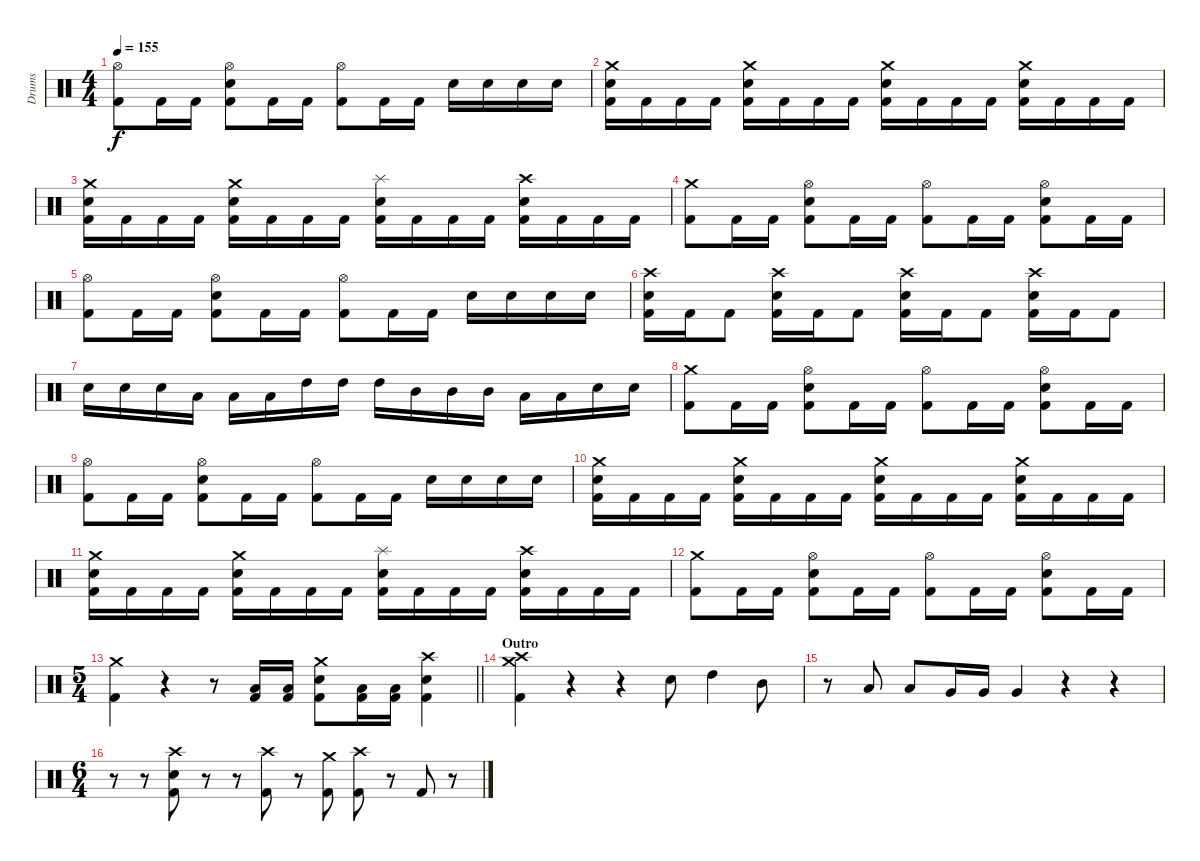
\track ("Drums" "Drums") {instrument percussion}
\staff {score}
\articulation defaults
\ts (4 4)
\tempo 155
\clef neutral
\ks c
("Hi-Hat (open)" "Kick (hit) 2").8{dy f} "Kick (hit) 2".16 "Kick (hit) 2".16 ("Hi-Hat (open)" "Electric Snare (hit)" "Kick (hit) 2").8 "Kick (hit) 2".16 "Kick (hit) 2".16 ("Hi-Hat (open)" "Kick (hit) 2").8 "Kick (hit) 2".16 "Kick (hit) 2".16 "Electric Snare (hit)".16 "Electric Snare (hit)".16 "Electric Snare (hit)".16 "Electric Snare (hit)".16 |
("Crash medium (hit)" "Electric Snare (hit)" "Kick (hit) 2").16 "Kick (hit) 2".16 "Kick (hit) 2".16 "Kick (hit) 2".16 ("Crash medium (hit)" "Electric Snare (hit)" "Kick (hit) 2").16 "Kick (hit) 2".16 "Kick (hit) 2".16 "Kick (hit) 2".16 ("Crash medium (hit)" "Electric Snare (hit)" "Kick (hit) 2").16 "Kick (hit) 2".16 "Kick (hit) 2".16 "Kick (hit) 2".16 ("Crash medium (hit)" "Electric Snare (hit)" "Kick (hit) 2").16 "Kick (hit) 2".16 "Kick (hit) 2".16 "Kick (hit) 2".16 |
("Crash medium (hit)" "Electric Snare (hit)" "Kick (hit) 2").16 "Kick (hit) 2".16 "Kick (hit) 2".16 "Kick (hit) 2".16 ("Crash medium (hit)" "Electric Snare (hit)" "Kick (hit) 2").16 "Kick (hit) 2".16 "Kick (hit) 2".16 "Kick (hit) 2".16 ("Splash (hit)" "Electric Snare (hit)" "Kick (hit) 2").16 "Kick (hit) 2".16 "Kick (hit) 2".16 "Kick (hit) 2".16 ("Crash high (hit)" "Electric Snare (hit)" "Kick (hit) 2").16 "Kick (hit) 2".16 "Kick (hit) 2".16 "Kick (hit) 2".16 |
("Crash medium (hit)" "Kick (hit) 2").8 "Kick (hit) 2".16 "Kick (hit) 2".16 ("Hi-Hat (open)" "Electric Snare (hit)" "Kick (hit) 2").8 "Kick (hit) 2".16 "Kick (hit) 2".16 ("Hi-Hat (open)" "Kick (hit) 2").8 "Kick (hit) 2".16 "Kick (hit) 2".16 ("Hi-Hat (open)" "Electric Snare (hit)" "Kick (hit) 2").8 "Kick (hit) 2".16 "Kick (hit) 2".16 |
("Hi-Hat (open)" "Kick (hit) 2").8 "Kick (hit) 2".16 "Kick (hit) 2".16 ("Hi-Hat (open)" "Electric Snare (hit)" "Kick (hit) 2").8 "Kick (hit) 2".16 "Kick (hit) 2".16 ("Hi-Hat (open)" "Kick (hit) 2").8 "Kick (hit) 2".16 "Kick (hit) 2".16 "Electric Snare (hit)".16 "Electric Snare (hit)".16 "Electric Snare (hit)".16 "Electric Snare (hit)".16 |
("Crash high (hit)" "Electric Snare (hit)" "Kick (hit) 2").16 "Kick (hit) 2".16 "Kick (hit) 2".8 ("Crash high (hit)" "Electric Snare (hit)" "Kick (hit) 2").16 "Kick (hit) 2".16 "Kick (hit) 2".8 ("Crash high (hit)" "Electric Snare (hit)" "Kick (hit) 2").16 "Kick (hit) 2".16 "Kick (hit) 2".8 ("Crash high (hit)" "Electric Snare (hit)" "Kick (hit) 2").16 "Kick (hit) 2".16 "Kick (hit) 2".8 |
"Electric Snare (hit)".16 "Electric Snare (hit)".16 "Electric Snare (hit)".16 "Low Tom (hit)".16 "Low Tom (hit)".16 "Low Tom (hit)".16 "High Tom (hit)".16 "High Tom (hit)".16 "High Tom (hit)".16 "Mid Tom (hit)".16 "Mid Tom (hit)".16 "Mid Tom (hit)".16 "Low Tom (hit)".16 "Low Tom (hit)".16 "Electric Snare (hit)".16 "Electric Snare (hit)".16 |
("Crash medium (hit)" "Kick (hit) 2").8 "Kick (hit) 2".16 "Kick (hit) 2".16 ("Hi-Hat (open)" "Electric Snare (hit)" "Kick (hit) 2").8 "Kick (hit) 2".16 "Kick (hit) 2".16 ("Hi-Hat (open)" "Kick (hit) 2").8 "Kick (hit) 2".16 "Kick (hit) 2".16 ("Hi-Hat (open)" "Electric Snare (hit)" "Kick (hit) 2").8 "Kick (hit) 2".16 "Kick (hit) 2".16 |
("Hi-Hat (open)" "Kick (hit) 2").8 "Kick (hit) 2".16 "Kick (hit) 2".16 ("Hi-Hat (open)" "Electric Snare (hit)" "Kick (hit) 2").8 "Kick (hit) 2".16 "Kick (hit) 2".16 ("Hi-Hat (open)" "Kick (hit) 2").8 "Kick (hit) 2".16 "Kick (hit) 2".16 "Electric Snare (hit)".16 "Electric Snare (hit)".16 "Electric Snare (hit)".16 "Electric Snare (hit)".16 |
("Crash medium (hit)" "Electric Snare (hit)" "Kick (hit) 2").16 "Kick (hit) 2".16 "Kick (hit) 2".16 "Kick (hit) 2".16 ("Crash medium (hit)" "Electric Snare (hit)" "Kick (hit) 2").16 "Kick (hit) 2".16 "Kick (hit) 2".16 "Kick (hit) 2".16 ("Crash medium (hit)" "Electric Snare (hit)" "Kick (hit) 2").16 "Kick (hit) 2".16 "Kick (hit) 2".16 "Kick (hit) 2".16 ("Crash medium (hit)" "Electric Snare (hit)" "Kick (hit) 2").16 "Kick (hit) 2".16 "Kick (hit) 2".16 "Kick (hit) 2".16 |
("Crash medium (hit)" "Electric Snare (hit)" "Kick (hit) 2").16 "Kick (hit) 2".16 "Kick (hit) 2".16 "Kick (hit) 2".16 ("Crash medium (hit)" "Electric Snare (hit)" "Kick (hit) 2").16 "Kick (hit) 2".16 "Kick (hit) 2".16 "Kick (hit) 2".16 ("Splash (hit)" "Electric Snare (hit)" "Kick (hit) 2").16 "Kick (hit) 2".16 "Kick (hit) 2".16 "Kick (hit) 2".16 ("Crash high (hit)" "Electric Snare (hit)" "Kick (hit) 2").16 "Kick (hit) 2".16 "Kick (hit) 2".16 "Kick (hit) 2".16 |
("Crash medium (hit)" "Kick (hit) 2").8 "Kick (hit) 2".16 "Kick (hit) 2".16 ("Hi-Hat (open)" "Electric Snare (hit)" "Kick (hit) 2").8 "Kick (hit) 2".16 "Kick (hit) 2".16 ("Hi-Hat (open)" "Kick (hit) 2").8 "Kick (hit) 2".16 "Kick (hit) 2".16 ("Hi-Hat (open)" "Electric Snare (hit)" "Kick (hit) 2").8 "Kick (hit) 2".16 "Kick (hit) 2".16 |
\ts (5 4)
\barLineRight lightlight
("Crash medium (hit)" "Kick (hit) 2").4 r.4 r.8 ("Low Tom (hit)" "Kick (hit) 2").16 ("Low Tom (hit)" "Kick (hit) 2").16 ("Crash medium (hit)" "Electric Snare (hit)" "Kick (hit) 2").8 ("Low Tom (hit)" "Kick (hit) 2").16 ("Low Tom (hit)" "Kick (hit) 2").16 ("Crash high (hit)" "Electric Snare (hit)" "Kick (hit) 2").4 |
\section ("" "Outro")
("Crash high (hit)" "Crash medium (hit)" "Kick (hit) 2").4 r.4 r.4 "Electric Snare (hit)".8 "High Tom (hit)".4 "Mid Tom (hit)".8 |
r.8 "Low Tom (hit)".8 "Low Tom (hit)".8 "Very Low Tom (hit)".16 "Very Low Tom (hit)".16 "Very Low Tom (hit)".4 r.4 r.4 |
\ts (6 4)
r.8 r.8 ("Crash high (hit)" "Electric Snare (hit)" "Kick (hit) 2").8 r.8 r.8 ("Crash high (hit)" "Kick (hit) 2").8 r.8 ("Crash medium (hit)" "Kick (hit) 2").8 ("Crash high (hit)" "Kick (hit) 2").8 r.8 "Kick (hit) 2".8 r.8
